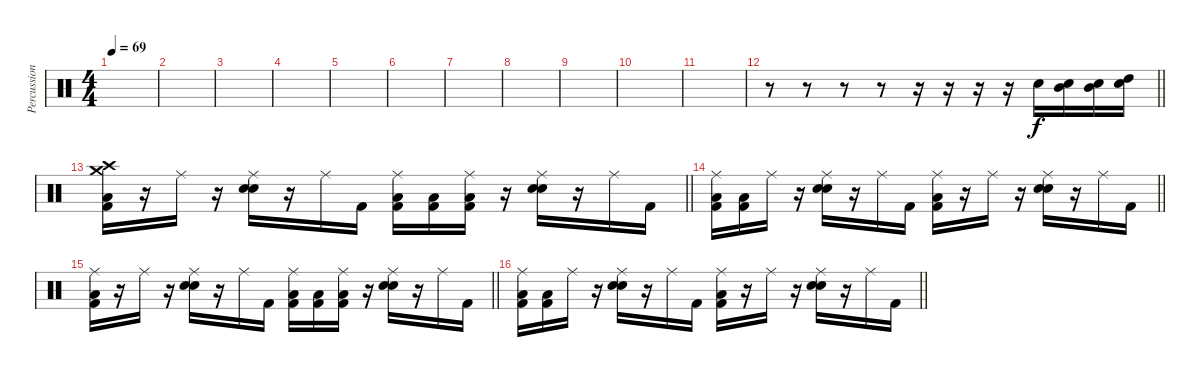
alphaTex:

\track ("Percussions" "Percussion") {instrument percussion}
\staff {score}
\articulation defaults
\ts (4 4)
\tempo 69
\clef neutral
\ks c
|
|
|
|
|
|
|
|
|
|
|
\barLineRight lightlight
r.8 r.8 r.8 r.8 r.16 r.16 r.16 r.16 "Electric Snare (hit)".16 ("Snare (hit) 2" "Mid Tom (hit)").16 ("Snare (hit) 2" "Mid Tom (hit)").16 ("Electric Snare (hit)" "High Tom (hit)").16 |
\barLineRight lightlight
("Crash medium (hit)" "Crash high (hit)" "Low Floor Tom (hit)" "Kick (hit) 2").16 r.16 "Ride (middle)".16 r.16 ("Ride (middle)" "Snare (hit) 2" "Electric Snare (hit)").16 r.16 "Ride (middle)".16 "Kick (hit) 2".16 ("Ride (middle)" "Low Floor Tom (hit)" "Kick (hit) 2").16 ("Low Floor Tom (hit)" "Kick (hit) 2").16 ("Ride (middle)" "Low Floor Tom (hit)" "Kick (hit) 2").16 r.16 ("Ride (middle)" "Snare (hit) 2" "Electric Snare (hit)").16 r.16 "Ride (middle)".16 "Kick (hit) 2".16 |
\barLineRight lightlight
("Ride (middle)" "Low Floor Tom (hit)" "Kick (hit) 2").16 ("Low Floor Tom (hit)" "Kick (hit) 2").16 "Ride (middle)".16 r.16 ("Ride (middle)" "Snare (hit) 2" "Electric Snare (hit)").16 r.16 "Ride (middle)".16 "Kick (hit) 2".16 ("Ride (middle)" "Low Floor Tom (hit)" "Kick (hit) 2").16 r.16 "Ride (middle)".16 r.16 ("Ride (middle)" "Snare (hit) 2" "Electric Snare (hit)").16 r.16 "Ride (middle)".16 "Kick (hit) 2".16 |
\barLineRight lightlight
("Ride (middle)" "Low Floor Tom (hit)" "Kick (hit) 2").16 r.16 "Ride (middle)".16 r.16 ("Ride (middle)" "Snare (hit) 2" "Electric Snare (hit)").16 r.16 "Ride (middle)".16 "Kick (hit) 2".16 ("Ride (middle)" "Low Floor Tom (hit)" "Kick (hit) 2").16 ("Low Floor Tom (hit)" "Kick (hit) 2").16 ("Ride (middle)" "Low Floor Tom (hit)" "Kick (hit) 2").16 r.16 ("Ride (middle)" "Snare (hit) 2" "Electric Snare (hit)").16 r.16 "Ride (middle)".16 "Kick (hit) 2".16 |
\barLineRight lightlight
("Ride (middle)" "Low Floor Tom (hit)" "Kick (hit) 2").16 ("Low Floor Tom (hit)" "Kick (hit) 2").16 "Ride (middle)".16 r.16 ("Ride (middle)" "Snare (hit) 2" "Electric Snare (hit)").16 r.16 "Ride (middle)".16 "Kick (hit) 2".16 ("Ride (middle)" "Low Floor Tom (hit)" "Kick (hit) 2").16 r.16 "Ride (middle)".16 r.16 ("Ride (middle)" "Snare (hit) 2" "Electric Snare (hit)").16 r.16 "Ride (middle)".16 "Kick (hit) 2".16
